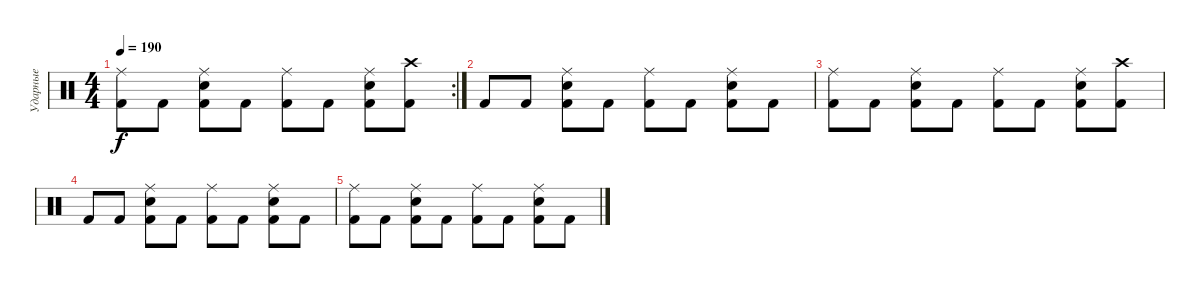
\track ("Ударные" "Ударные") {instrument percussion}
\staff
\articulation defaults
\rc 2
\ts (4 4)
\tempo 190
\clef neutral
\ks c
("Ride (middle)" "Kick (hit) 2").8{dy f} "Kick (hit) 2".8 ("Ride (middle)" "Snare (hit) 2" "Kick (hit) 2").8 "Kick (hit) 2".8 ("Ride (middle)" "Kick (hit) 2").8 "Kick (hit) 2".8 ("Ride (middle)" "Snare (hit) 2" "Kick (hit) 2").8 ("Crash high (hit)" "Kick (hit) 2").8 |
"Kick (hit) 2".8 "Kick (hit) 2".8 ("Ride (middle)" "Snare (hit) 2" "Kick (hit) 2").8 "Kick (hit) 2".8 ("Ride (middle)" "Kick (hit) 2").8 "Kick (hit) 2".8 ("Ride (middle)" "Snare (hit) 2" "Kick (hit) 2").8 "Kick (hit) 2".8 |
("Ride (middle)" "Kick (hit) 2").8 "Kick (hit) 2".8 ("Ride (middle)" "Snare (hit) 2" "Kick (hit) 2").8 "Kick (hit) 2".8 ("Ride (middle)" "Kick (hit) 2").8 "Kick (hit) 2".8 ("Ride (middle)" "Snare (hit) 2" "Kick (hit) 2").8 ("Crash high (hit)" "Kick (hit) 2").8 |
"Kick (hit) 2".8 "Kick (hit) 2".8 ("Ride (middle)" "Snare (hit) 2" "Kick (hit) 2").8 "Kick (hit) 2".8 ("Ride (middle)" "Kick (hit) 2").8 "Kick (hit) 2".8 ("Ride (middle)" "Snare (hit) 2" "Kick (hit) 2").8 "Kick (hit) 2".8 |
("Ride (middle)" "Kick (hit) 2").8 "Kick (hit) 2".8 ("Ride (middle)" "Snare (hit) 2" "Kick (hit) 2").8 "Kick (hit) 2".8 ("Ride (middle)" "Kick (hit) 2").8 "Kick (hit) 2".8 ("Ride (middle)" "Snare (hit) 2" "Kick (hit) 2").8 "Kick (hit) 2".8
